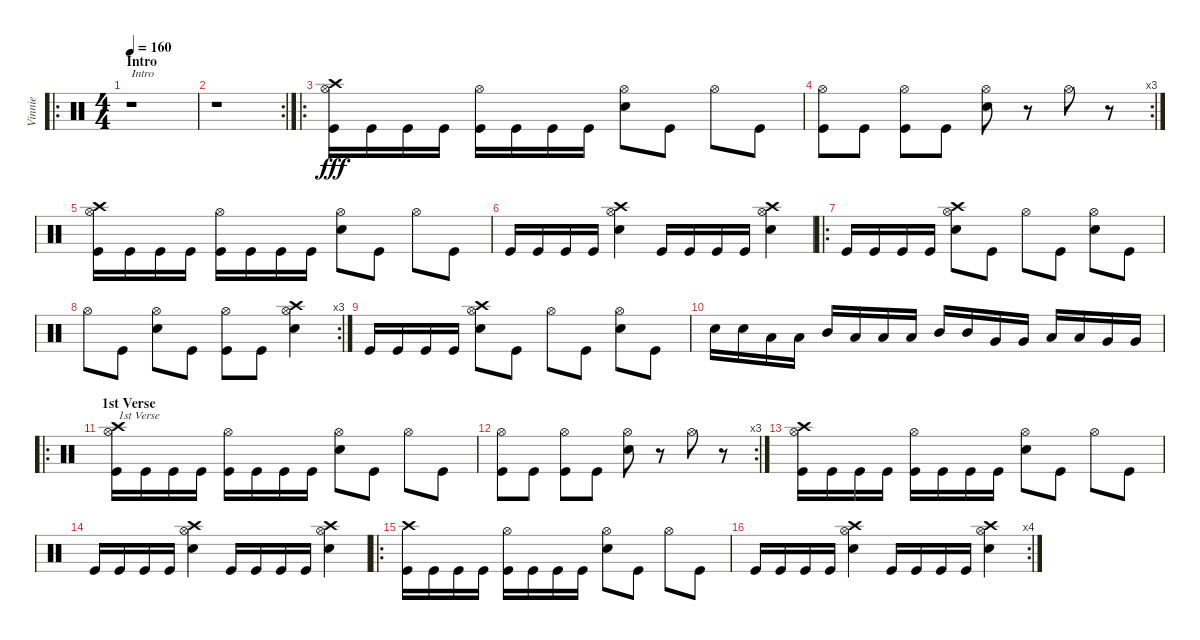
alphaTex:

\track ("Vinnie" "Vinnie") {instrument percussion}
\staff {score}
\articulation defaults
\ro
\ts (4 4)
\section ("" "Intro")
\tempo 160
\clef neutral
\ks c
r.1{txt "Intro" dy fff} |
\rc 2
r.1 |
\ro
("Kick (hit)" "Crash high (hit)" "Hi-Hat (open)").16 "Kick (hit)".16 "Kick (hit)".16 "Kick (hit)".16 ("Kick (hit)" "Hi-Hat (open)").16 "Kick (hit)".16 "Kick (hit)".16 "Kick (hit)".16 ("Electric Snare (hit)" "Hi-Hat (open)").8 "Kick (hit)".8 "Hi-Hat (open)".8 "Kick (hit)".8 |
\rc 3
("Kick (hit)" "Hi-Hat (open)").8 "Kick (hit)".8 ("Kick (hit)" "Hi-Hat (open)").8 "Kick (hit)".8 ("Electric Snare (hit)" "Hi-Hat (open)").8 r.8 "Hi-Hat (open)".8 r.8 |
("Kick (hit)" "Crash high (hit)" "Hi-Hat (open)").16 "Kick (hit)".16 "Kick (hit)".16 "Kick (hit)".16 ("Kick (hit)" "Hi-Hat (open)").16 "Kick (hit)".16 "Kick (hit)".16 "Kick (hit)".16 ("Electric Snare (hit)" "Hi-Hat (open)").8 "Kick (hit)".8 "Hi-Hat (open)".8 "Kick (hit)".8 |
"Kick (hit)".16 "Kick (hit)".16 "Kick (hit)".16 "Kick (hit)".16 ("Electric Snare (hit)" "Crash high (hit)" "Hi-Hat (open)").4 "Kick (hit)".16 "Kick (hit)".16 "Kick (hit)".16 "Kick (hit)".16 ("Electric Snare (hit)" "Crash high (hit)" "Hi-Hat (open)").4 |
\ro "Kick (hit)".16 "Kick (hit)".16 "Kick (hit)".16 "Kick (hit)".16
("Electric Snare (hit)" "Crash high (hit)" "Hi-Hat (open)").8 "Kick (hit)".8 "Hi-Hat (open)".8 "Kick (hit)".8 ("Electric Snare (hit)" "Hi-Hat (open)").8 "Kick (hit)".8 |
\rc 3 "Hi-Hat (open)".8 "Kick (hit)".8
("Electric Snare (hit)" "Hi-Hat (open)").8 "Kick (hit)".8 ("Kick (hit)" "Hi-Hat (open)").8 "Kick (hit)".8 ("Electric Snare (hit)" "Crash high (hit)" "Hi-Hat (open)").4 |
"Kick (hit)".16 "Kick (hit)".16 "Kick (hit)".16 "Kick (hit)".16 ("Electric Snare (hit)" "Crash high (hit)" "Hi-Hat (open)").8 "Kick (hit)".8 "Hi-Hat (open)".8 "Kick (hit)".8 ("Electric Snare (hit)" "Hi-Hat (open)").8 "Kick (hit)".8 |
"Electric Snare (hit)".16 "Electric Snare (hit)".16 "Low Tom (hit)".16 "Low Tom (hit)".16 "Mid Tom (hit)".16 "Low Tom (hit)".16 "Low Tom (hit)".16 "Low Tom (hit)".16 "Mid Tom (hit)".16 "Mid Tom (hit)".16 "Very Low Tom (hit)".16 "Very Low Tom (hit)".16 "Low Tom (hit)".16 "Low Tom (hit)".16 "Very Low Tom (hit)".16 "Very Low Tom (hit)".16 |
\ro
\section ("" "1st Verse")
("Kick (hit)" "Crash high (hit)" "Hi-Hat (open)").16{txt "1st Verse"} "Kick (hit)".16 "Kick (hit)".16 "Kick (hit)".16 ("Kick (hit)" "Hi-Hat (open)").16 "Kick (hit)".16 "Kick (hit)".16 "Kick (hit)".16 ("Electric Snare (hit)" "Hi-Hat (open)").8 "Kick (hit)".8 "Hi-Hat (open)".8 "Kick (hit)".8 |
\rc 3
("Kick (hit)" "Hi-Hat (open)").8 "Kick (hit)".8 ("Kick (hit)" "Hi-Hat (open)").8 "Kick (hit)".8 ("Electric Snare (hit)" "Hi-Hat (open)").8 r.8 "Hi-Hat (open)".8 r.8 |
("Kick (hit)" "Crash high (hit)" "Hi-Hat (open)").16 "Kick (hit)".16 "Kick (hit)".16 "Kick (hit)".16 ("Kick (hit)" "Hi-Hat (open)").16 "Kick (hit)".16 "Kick (hit)".16 "Kick (hit)".16 ("Electric Snare (hit)" "Hi-Hat (open)").8 "Kick (hit)".8 "Hi-Hat (open)".8 "Kick (hit)".8 |
"Kick (hit)".16 "Kick (hit)".16 "Kick (hit)".16 "Kick (hit)".16 ("Electric Snare (hit)" "Crash high (hit)" "Hi-Hat (open)").4 "Kick (hit)".16 "Kick (hit)".16 "Kick (hit)".16 "Kick (hit)".16 ("Electric Snare (hit)" "Crash high (hit)" "Hi-Hat (open)").4 |
\ro
("Kick (hit)" "Crash high (hit)").16 "Kick (hit)".16 "Kick (hit)".16 "Kick (hit)".16 ("Kick (hit)" "Hi-Hat (open)").16 "Kick (hit)".16 "Kick (hit)".16 "Kick (hit)".16 ("Electric Snare (hit)" "Hi-Hat (open)").8 "Kick (hit)".8 "Hi-Hat (open)".8 "Kick (hit)".8 |
\rc 4 "Kick (hit)".16 "Kick (hit)".16 "Kick (hit)".16 "Kick (hit)".16
("Electric Snare (hit)" "Crash high (hit)" "Hi-Hat (open)").4 "Kick (hit)".16 "Kick (hit)".16 "Kick (hit)".16 "Kick (hit)".16 ("Electric Snare (hit)" "Crash high (hit)" "Hi-Hat (open)").4
